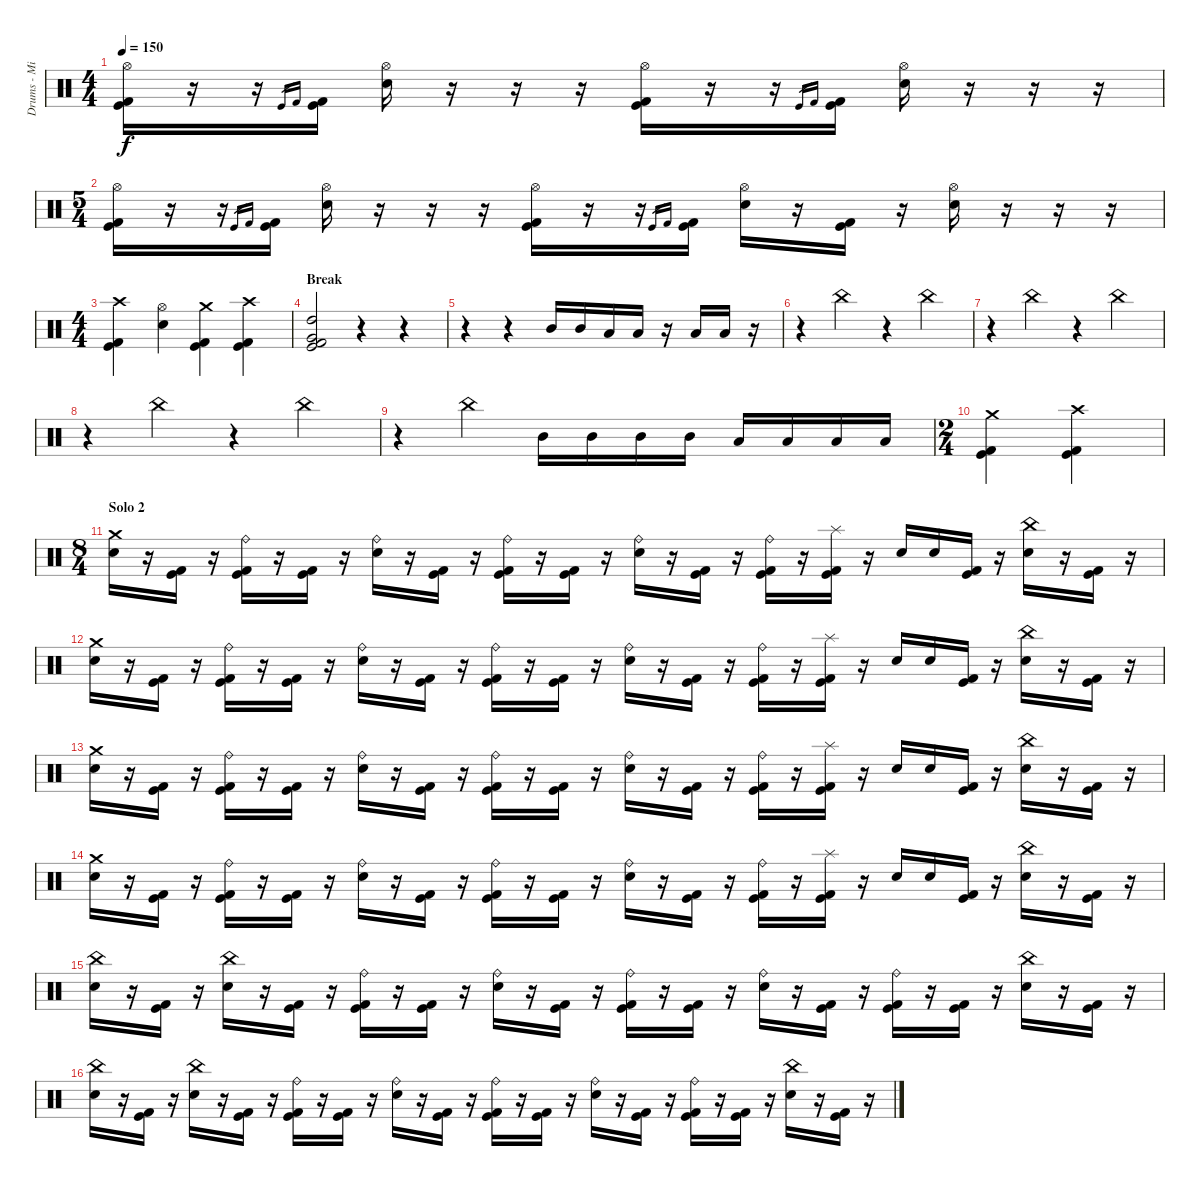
\track ("Drums - Mikkey Dee" "Drums - Mi") {instrument percussion}
\staff {score}
\articulation defaults
\ts (4 4)
\tempo 150
\clef neutral
\ks c
("Hi-Hat (open)" "Kick (hit)" "Kick (hit) 2").16{dy f} r.16 r.16 "Kick (hit)".16{gr} "Kick (hit) 2".16{gr} ("Kick (hit)" "Kick (hit) 2").16 ("Hi-Hat (open)" "Electric Snare (hit)").16 r.16 r.16 r.16 ("Hi-Hat (open)" "Kick (hit)" "Kick (hit) 2").16 r.16 r.16 "Kick (hit)".16{gr} "Kick (hit) 2".16{gr} ("Kick (hit)" "Kick (hit) 2").16 ("Hi-Hat (open)" "Electric Snare (hit)").16 r.16 r.16 r.16 |
\ts (5 4)
("Hi-Hat (open)" "Kick (hit)" "Kick (hit) 2").16 r.16 r.16 "Kick (hit)".16{gr} "Kick (hit) 2".16{gr} ("Kick (hit)" "Kick (hit) 2").16 ("Hi-Hat (open)" "Electric Snare (hit)").16 r.16 r.16 r.16 ("Hi-Hat (open)" "Kick (hit)" "Kick (hit) 2").16 r.16 r.16 "Kick (hit)".16{gr} "Kick (hit) 2".16{gr} ("Kick (hit)" "Kick (hit) 2").16 ("Hi-Hat (open)" "Electric Snare (hit)").16 r.16 ("Kick (hit)" "Kick (hit) 2").16 r.16 ("Hi-Hat (open)" "Electric Snare (hit)").16 r.16 r.16 r.16 |
\ts (4 4)
("Crash high (hit)" "Kick (hit)" "Kick (hit) 2").4 ("Hi-Hat (open)" "Electric Snare (hit)").4 ("Crash medium (hit)" "Kick (hit)" "Kick (hit) 2").4 ("Crash high (hit)" "Kick (hit)" "Kick (hit) 2").4 |
\section ("" "Break")
("High Tom (hit)" "Very Low Tom (hit)" "Kick (hit)" "Kick (hit) 2").2 r.4 r.4 |
r.4 r.4 "Mid Tom (hit)".16 "Mid Tom (hit)".16 "Low Tom (hit)".16 "Low Tom (hit)".16 r.16 "Low Tom (hit)".16 "Low Tom (hit)".16 r.16 |
r.4 "China (hit)".4 r.4 "China (hit)".4 |
r.4 "China (hit)".4 r.4 "China (hit)".4 |
r.4 "China (hit)".4 r.4 "China (hit)".4 |
r.4 "China (hit)".4 "Mid Tom (hit)".16 "Mid Tom (hit)".16 "Mid Tom (hit)".16 "Mid Tom (hit)".16 "Low Tom (hit)".16 "Low Tom (hit)".16 "Low Tom (hit)".16 "Low Tom (hit)".16 |
\ts (2 4)
("Crash medium (hit)" "Kick (hit)" "Kick (hit) 2").4 ("Crash high (hit)" "Kick (hit)" "Kick (hit) 2").4 |
\ts (8 4)
\section ("" "Solo 2")
("Crash medium (hit)" "Electric Snare (hit)").16 r.16 ("Kick (hit)" "Kick (hit) 2").16 r.16 ("Ride (bell)" "Kick (hit)" "Kick (hit) 2").16 r.16 ("Kick (hit)" "Kick (hit) 2").16 r.16 ("Ride (bell)" "Electric Snare (hit)").16 r.16 ("Kick (hit)" "Kick (hit) 2").16 r.16 ("Ride (bell)" "Kick (hit)" "Kick (hit) 2").16 r.16 ("Kick (hit)" "Kick (hit) 2").16 r.16 ("Ride (bell)" "Electric Snare (hit)").16 r.16 ("Kick (hit)" "Kick (hit) 2").16 r.16 ("Ride (bell)" "Kick (hit)" "Kick (hit) 2").16 r.16 ("Splash (hit)" "Kick (hit)" "Kick (hit) 2").16 r.16 "Electric Snare (hit)".16 "Electric Snare (hit)".16 ("Kick (hit)" "Kick (hit) 2").16 r.16 ("China (hit)" "Electric Snare (hit)").16 r.16 ("Kick (hit)" "Kick (hit) 2").16 r.16 |
("Crash medium (hit)" "Electric Snare (hit)").16 r.16 ("Kick (hit)" "Kick (hit) 2").16 r.16 ("Ride (bell)" "Kick (hit)" "Kick (hit) 2").16 r.16 ("Kick (hit)" "Kick (hit) 2").16 r.16 ("Ride (bell)" "Electric Snare (hit)").16 r.16 ("Kick (hit)" "Kick (hit) 2").16 r.16 ("Ride (bell)" "Kick (hit)" "Kick (hit) 2").16 r.16 ("Kick (hit)" "Kick (hit) 2").16 r.16 ("Ride (bell)" "Electric Snare (hit)").16 r.16 ("Kick (hit)" "Kick (hit) 2").16 r.16 ("Ride (bell)" "Kick (hit)" "Kick (hit) 2").16 r.16 ("Splash (hit)" "Kick (hit)" "Kick (hit) 2").16 r.16 "Electric Snare (hit)".16 "Electric Snare (hit)".16 ("Kick (hit)" "Kick (hit) 2").16 r.16 ("China (hit)" "Electric Snare (hit)").16 r.16 ("Kick (hit)" "Kick (hit) 2").16 r.16 |
("Crash medium (hit)" "Electric Snare (hit)").16 r.16 ("Kick (hit)" "Kick (hit) 2").16 r.16 ("Ride (bell)" "Kick (hit)" "Kick (hit) 2").16 r.16 ("Kick (hit)" "Kick (hit) 2").16 r.16 ("Ride (bell)" "Electric Snare (hit)").16 r.16 ("Kick (hit)" "Kick (hit) 2").16 r.16 ("Ride (bell)" "Kick (hit)" "Kick (hit) 2").16 r.16 ("Kick (hit)" "Kick (hit) 2").16 r.16 ("Ride (bell)" "Electric Snare (hit)").16 r.16 ("Kick (hit)" "Kick (hit) 2").16 r.16 ("Ride (bell)" "Kick (hit)" "Kick (hit) 2").16 r.16 ("Splash (hit)" "Kick (hit)" "Kick (hit) 2").16 r.16 "Electric Snare (hit)".16 "Electric Snare (hit)".16 ("Kick (hit)" "Kick (hit) 2").16 r.16 ("China (hit)" "Electric Snare (hit)").16 r.16 ("Kick (hit)" "Kick (hit) 2").16 r.16 |
("Crash medium (hit)" "Electric Snare (hit)").16 r.16 ("Kick (hit)" "Kick (hit) 2").16 r.16 ("Ride (bell)" "Kick (hit)" "Kick (hit) 2").16 r.16 ("Kick (hit)" "Kick (hit) 2").16 r.16 ("Ride (bell)" "Electric Snare (hit)").16 r.16 ("Kick (hit)" "Kick (hit) 2").16 r.16 ("Ride (bell)" "Kick (hit)" "Kick (hit) 2").16 r.16 ("Kick (hit)" "Kick (hit) 2").16 r.16 ("Ride (bell)" "Electric Snare (hit)").16 r.16 ("Kick (hit)" "Kick (hit) 2").16 r.16 ("Ride (bell)" "Kick (hit)" "Kick (hit) 2").16 r.16 ("Splash (hit)" "Kick (hit)" "Kick (hit) 2").16 r.16 "Electric Snare (hit)".16 "Electric Snare (hit)".16 ("Kick (hit)" "Kick (hit) 2").16 r.16 ("China (hit)" "Electric Snare (hit)").16 r.16 ("Kick (hit)" "Kick (hit) 2").16 r.16 |
\section ("" "")
("China (hit)" "Electric Snare (hit)").16 r.16 ("Kick (hit)" "Kick (hit) 2").16 r.16 ("China (hit)" "Electric Snare (hit)").16 r.16 ("Kick (hit)" "Kick (hit) 2").16 r.16 ("Ride (bell)" "Kick (hit)" "Kick (hit) 2").16 r.16 ("Kick (hit)" "Kick (hit) 2").16 r.16 ("Ride (bell)" "Electric Snare (hit)").16 r.16 ("Kick (hit)" "Kick (hit) 2").16 r.16 ("Ride (bell)" "Kick (hit)" "Kick (hit) 2").16 r.16 ("Kick (hit)" "Kick (hit) 2").16 r.16 ("Ride (bell)" "Electric Snare (hit)").16 r.16 ("Kick (hit)" "Kick (hit) 2").16 r.16 ("Ride (bell)" "Kick (hit)" "Kick (hit) 2").16 r.16 ("Kick (hit)" "Kick (hit) 2").16 r.16 ("China (hit)" "Electric Snare (hit)").16 r.16 ("Kick (hit)" "Kick (hit) 2").16 r.16 |
("China (hit)" "Electric Snare (hit)").16 r.16 ("Kick (hit)" "Kick (hit) 2").16 r.16 ("China (hit)" "Electric Snare (hit)").16 r.16 ("Kick (hit)" "Kick (hit) 2").16 r.16 ("Ride (bell)" "Kick (hit)" "Kick (hit) 2").16 r.16 ("Kick (hit)" "Kick (hit) 2").16 r.16 ("Ride (bell)" "Electric Snare (hit)").16 r.16 ("Kick (hit)" "Kick (hit) 2").16 r.16 ("Ride (bell)" "Kick (hit)" "Kick (hit) 2").16 r.16 ("Kick (hit)" "Kick (hit) 2").16 r.16 ("Ride (bell)" "Electric Snare (hit)").16 r.16 ("Kick (hit)" "Kick (hit) 2").16 r.16 ("Ride (bell)" "Kick (hit)" "Kick (hit) 2").16 r.16 ("Kick (hit)" "Kick (hit) 2").16 r.16 ("China (hit)" "Electric Snare (hit)").16 r.16 ("Kick (hit)" "Kick (hit) 2").16 r.16
